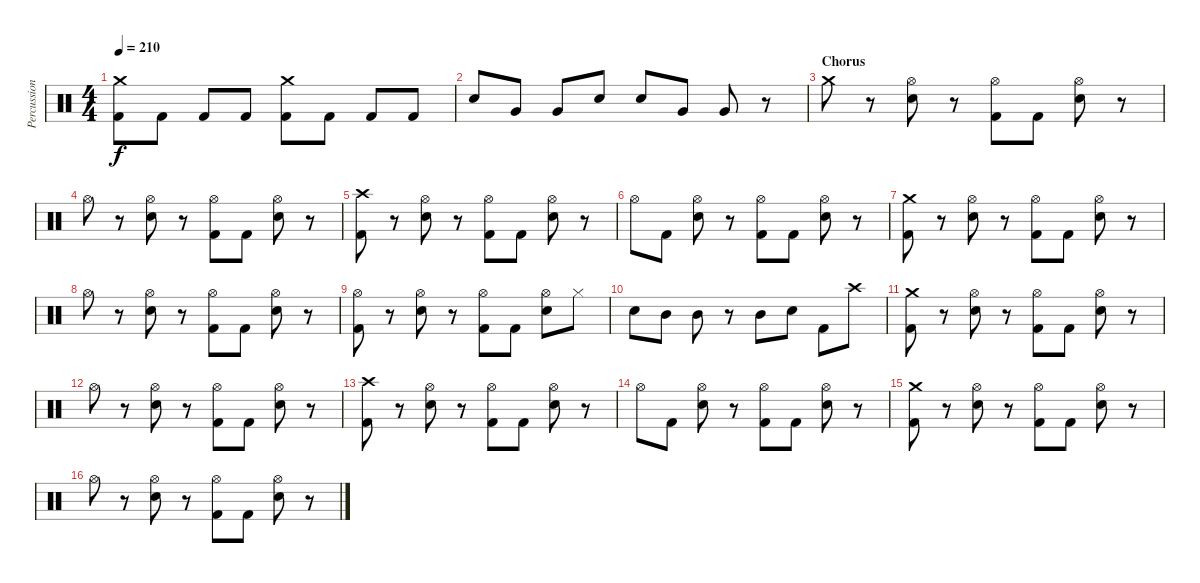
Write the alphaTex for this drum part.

\track ("Percussion" "Percussion") {instrument percussion}
\staff {score}
\articulation defaults
\ts (4 4)
\tempo 210
\clef neutral
\ks c
("Crash medium (hit)" "Kick (hit) 2").8{dy f} "Kick (hit) 2".8 "Kick (hit) 2".8 "Kick (hit) 2".8 ("Crash medium (hit)" "Kick (hit) 2").8 "Kick (hit) 2".8 "Kick (hit) 2".8 "Kick (hit) 2".8 |
"Electric Snare (hit)".8 "Very Low Tom (hit)".8 "Very Low Tom (hit)".8 "Electric Snare (hit)".8 "Electric Snare (hit)".8 "Very Low Tom (hit)".8 "Very Low Tom (hit)".8 r.8 |
\section ("" "Chorus")
"Crash medium (hit)".8 r.8 ("Hi-Hat (open)" "Electric Snare (hit)").8 r.8 ("Hi-Hat (open)" "Kick (hit) 2").8 "Kick (hit) 2".8 ("Hi-Hat (open)" "Electric Snare (hit)").8 r.8 |
"Hi-Hat (open)".8 r.8 ("Hi-Hat (open)" "Electric Snare (hit)").8 r.8 ("Hi-Hat (open)" "Kick (hit) 2").8 "Kick (hit) 2".8 ("Hi-Hat (open)" "Electric Snare (hit)").8 r.8 |
("Crash high (hit)" "Kick (hit) 2").8 r.8 ("Hi-Hat (open)" "Electric Snare (hit)").8 r.8 ("Hi-Hat (open)" "Kick (hit) 2").8 "Kick (hit) 2".8 ("Hi-Hat (open)" "Electric Snare (hit)").8 r.8 |
"Hi-Hat (open)".8 "Kick (hit) 2".8 ("Hi-Hat (open)" "Electric Snare (hit)").8 r.8 ("Hi-Hat (open)" "Kick (hit) 2").8 "Kick (hit) 2".8 ("Hi-Hat (open)" "Electric Snare (hit)").8 r.8 |
("Crash medium (hit)" "Kick (hit) 2").8 r.8 ("Hi-Hat (open)" "Electric Snare (hit)").8 r.8 ("Hi-Hat (open)" "Kick (hit) 2").8 "Kick (hit) 2".8 ("Hi-Hat (open)" "Electric Snare (hit)").8 r.8 |
"Hi-Hat (open)".8 r.8 ("Hi-Hat (open)" "Electric Snare (hit)").8 r.8 ("Hi-Hat (open)" "Kick (hit) 2").8 "Kick (hit) 2".8 ("Hi-Hat (open)" "Electric Snare (hit)").8 r.8 |
("Hi-Hat (open)" "Kick (hit) 2").8 r.8 ("Hi-Hat (open)" "Electric Snare (hit)").8 r.8 ("Hi-Hat (open)" "Kick (hit) 2").8 "Kick (hit) 2".8 ("Hi-Hat (open)" "Electric Snare (hit)").8 "Hi-Hat (closed)".8 |
"Electric Snare (hit)".8 "Mid Tom (hit)".8 "Mid Tom (hit)".8 r.8 "Mid Tom (hit)".8 "Electric Snare (hit)".8 "Kick (hit) 2".8 "Crash high (hit)".8 |
("Crash medium (hit)" "Kick (hit) 2").8 r.8 ("Hi-Hat (open)" "Electric Snare (hit)").8 r.8 ("Hi-Hat (open)" "Kick (hit) 2").8 "Kick (hit) 2".8 ("Hi-Hat (open)" "Electric Snare (hit)").8 r.8 |
"Hi-Hat (open)".8 r.8 ("Hi-Hat (open)" "Electric Snare (hit)").8 r.8 ("Hi-Hat (open)" "Kick (hit) 2").8 "Kick (hit) 2".8 ("Hi-Hat (open)" "Electric Snare (hit)").8 r.8 |
("Crash high (hit)" "Kick (hit) 2").8 r.8 ("Hi-Hat (open)" "Electric Snare (hit)").8 r.8 ("Hi-Hat (open)" "Kick (hit) 2").8 "Kick (hit) 2".8 ("Hi-Hat (open)" "Electric Snare (hit)").8 r.8 |
"Hi-Hat (open)".8 "Kick (hit) 2".8 ("Hi-Hat (open)" "Electric Snare (hit)").8 r.8 ("Hi-Hat (open)" "Kick (hit) 2").8 "Kick (hit) 2".8 ("Hi-Hat (open)" "Electric Snare (hit)").8 r.8 |
("Crash medium (hit)" "Kick (hit) 2").8 r.8 ("Hi-Hat (open)" "Electric Snare (hit)").8 r.8 ("Hi-Hat (open)" "Kick (hit) 2").8 "Kick (hit) 2".8 ("Hi-Hat (open)" "Electric Snare (hit)").8 r.8 |
"Hi-Hat (open)".8 r.8 ("Hi-Hat (open)" "Electric Snare (hit)").8 r.8 ("Hi-Hat (open)" "Kick (hit) 2").8 "Kick (hit) 2".8 ("Hi-Hat (open)" "Electric Snare (hit)").8 r.8
